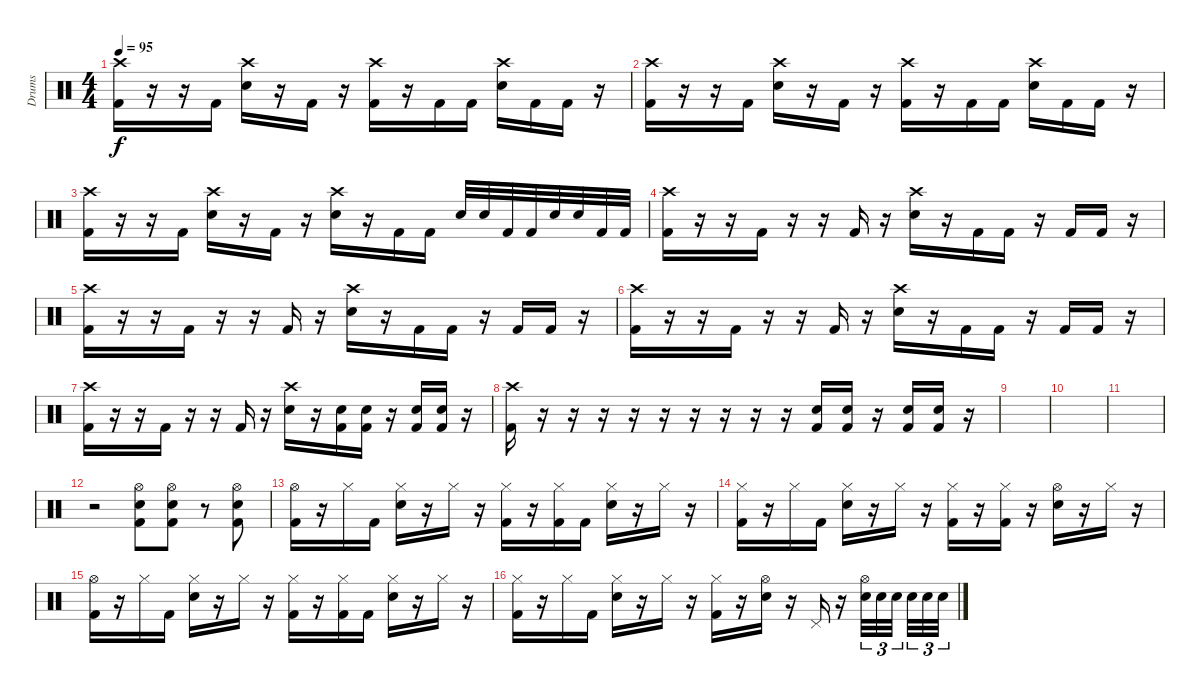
\track ("Drums" "Drums") {instrument percussion}
\staff {score}
\articulation defaults
\ts (4 4)
\tempo 95
\clef neutral
\ks c
("Crash high (hit)" "Kick (hit) 2").16{dy f} r.16 r.16 "Kick (hit) 2".16 ("Crash high (hit)" "Electric Snare (hit)").16 r.16 "Kick (hit) 2".16 r.16 ("Crash high (hit)" "Kick (hit) 2").16 r.16 "Kick (hit) 2".16 "Kick (hit) 2".16 ("Crash high (hit)" "Electric Snare (hit)").16 "Kick (hit) 2".16 "Kick (hit) 2".16 r.16 |
("Crash high (hit)" "Kick (hit) 2").16 r.16 r.16 "Kick (hit) 2".16 ("Crash high (hit)" "Electric Snare (hit)").16 r.16 "Kick (hit) 2".16 r.16 ("Crash high (hit)" "Kick (hit) 2").16 r.16 "Kick (hit) 2".16 "Kick (hit) 2".16 ("Crash high (hit)" "Electric Snare (hit)").16 "Kick (hit) 2".16 "Kick (hit) 2".16 r.16 |
("Crash high (hit)" "Kick (hit) 2").16 r.16 r.16 "Kick (hit) 2".16 ("Crash high (hit)" "Electric Snare (hit)").16 r.16 "Kick (hit) 2".16 r.16 ("Crash high (hit)" "Electric Snare (hit)").16 r.16 "Kick (hit) 2".16 "Kick (hit) 2".16 "Electric Snare (hit)".32 "Electric Snare (hit)".32 "Kick (hit) 2".32 "Kick (hit) 2".32 "Electric Snare (hit)".32 "Electric Snare (hit)".32 "Kick (hit) 2".32 "Kick (hit) 2".32 |
("Crash high (hit)" "Kick (hit) 2").16 r.16 r.16 "Kick (hit) 2".16 r.16 r.16 "Kick (hit) 2".16 r.16 ("Crash high (hit)" "Electric Snare (hit)").16 r.16 "Kick (hit) 2".16 "Kick (hit) 2".16 r.16 "Kick (hit) 2".16 "Kick (hit) 2".16 r.16 |
("Crash high (hit)" "Kick (hit) 2").16 r.16 r.16 "Kick (hit) 2".16 r.16 r.16 "Kick (hit) 2".16 r.16 ("Crash high (hit)" "Electric Snare (hit)").16 r.16 "Kick (hit) 2".16 "Kick (hit) 2".16 r.16 "Kick (hit) 2".16 "Kick (hit) 2".16 r.16 |
("Crash high (hit)" "Kick (hit) 2").16 r.16 r.16 "Kick (hit) 2".16 r.16 r.16 "Kick (hit) 2".16 r.16 ("Crash high (hit)" "Electric Snare (hit)").16 r.16 "Kick (hit) 2".16 "Kick (hit) 2".16 r.16 "Kick (hit) 2".16 "Kick (hit) 2".16 r.16 |
("Crash high (hit)" "Kick (hit) 2").16 r.16 r.16 "Kick (hit) 2".16 r.16 r.16 "Kick (hit) 2".16 r.16 ("Crash high (hit)" "Electric Snare (hit)").16 r.16 ("Electric Snare (hit)" "Kick (hit) 2").16 ("Electric Snare (hit)" "Kick (hit) 2").16 r.16 ("Electric Snare (hit)" "Kick (hit) 2").16 ("Electric Snare (hit)" "Kick (hit) 2").16 r.16 |
("Crash high (hit)" "Kick (hit) 2").16 r.16 r.16 r.16 r.16 r.16 r.16 r.16 r.16 r.16 ("Electric Snare (hit)" "Kick (hit) 2").16 ("Electric Snare (hit)" "Kick (hit) 2").16 r.16 ("Electric Snare (hit)" "Kick (hit) 2").16 ("Electric Snare (hit)" "Kick (hit) 2").16 r.16 |
|
|
|
r.2 ("Hi-Hat (open)" "Electric Snare (hit)" "Kick (hit) 2").8 ("Hi-Hat (open)" "Electric Snare (hit)" "Kick (hit) 2").8 r.8 ("Hi-Hat (open)" "Electric Snare (hit)" "Kick (hit) 2").8 |
("Hi-Hat (open)" "Kick (hit) 2").16 r.16 "Hi-Hat (closed)".16 "Kick (hit) 2".16 ("Hi-Hat (closed)" "Electric Snare (hit)").16 r.16 "Hi-Hat (closed)".16 r.16 ("Hi-Hat (closed)" "Kick (hit) 2").16 r.16 ("Hi-Hat (closed)" "Kick (hit) 2").16 "Kick (hit) 2".16 ("Hi-Hat (closed)" "Electric Snare (hit)").16 r.16 "Hi-Hat (closed)".16 r.16 |
("Hi-Hat (closed)" "Kick (hit) 2").16 r.16 "Hi-Hat (closed)".16 "Kick (hit) 2".16 ("Hi-Hat (closed)" "Electric Snare (hit)").16 r.16 "Hi-Hat (closed)".16 r.16 ("Hi-Hat (closed)" "Kick (hit) 2").16 r.16 ("Hi-Hat (closed)" "Kick (hit) 2").16 r.16 ("Hi-Hat (open)" "Electric Snare (hit)").16 r.16 "Hi-Hat (closed)".16 r.16 |
("Hi-Hat (open)" "Kick (hit) 2").16 r.16 "Hi-Hat (closed)".16 "Kick (hit) 2".16 ("Hi-Hat (closed)" "Electric Snare (hit)").16 r.16 "Hi-Hat (closed)".16 r.16 ("Hi-Hat (closed)" "Kick (hit) 2").16 r.16 ("Hi-Hat (closed)" "Kick (hit) 2").16 "Kick (hit) 2".16 ("Hi-Hat (closed)" "Electric Snare (hit)").16 r.16 "Hi-Hat (closed)".16 r.16 |
("Hi-Hat (closed)" "Kick (hit) 2").16 r.16 "Hi-Hat (closed)".16 "Kick (hit) 2".16 ("Hi-Hat (closed)" "Electric Snare (hit)").16 r.16 "Hi-Hat (closed)".16 r.16 ("Hi-Hat (closed)" "Kick (hit) 2").16 r.16 ("Hi-Hat (open)" "Electric Snare (hit)").16 r.16 "Pedal Hi-Hat (hit)".16 r.16 ("Hi-Hat (open)" "Electric Snare (hit)").32{tu (3 2)} "Electric Snare (hit)".32{tu (3 2)} "Electric Snare (hit)".32{tu (3 2)} "Electric Snare (hit)".32{tu (3 2)} "Electric Snare (hit)".32{tu (3 2)} "Electric Snare (hit)".32{tu (3 2)}
